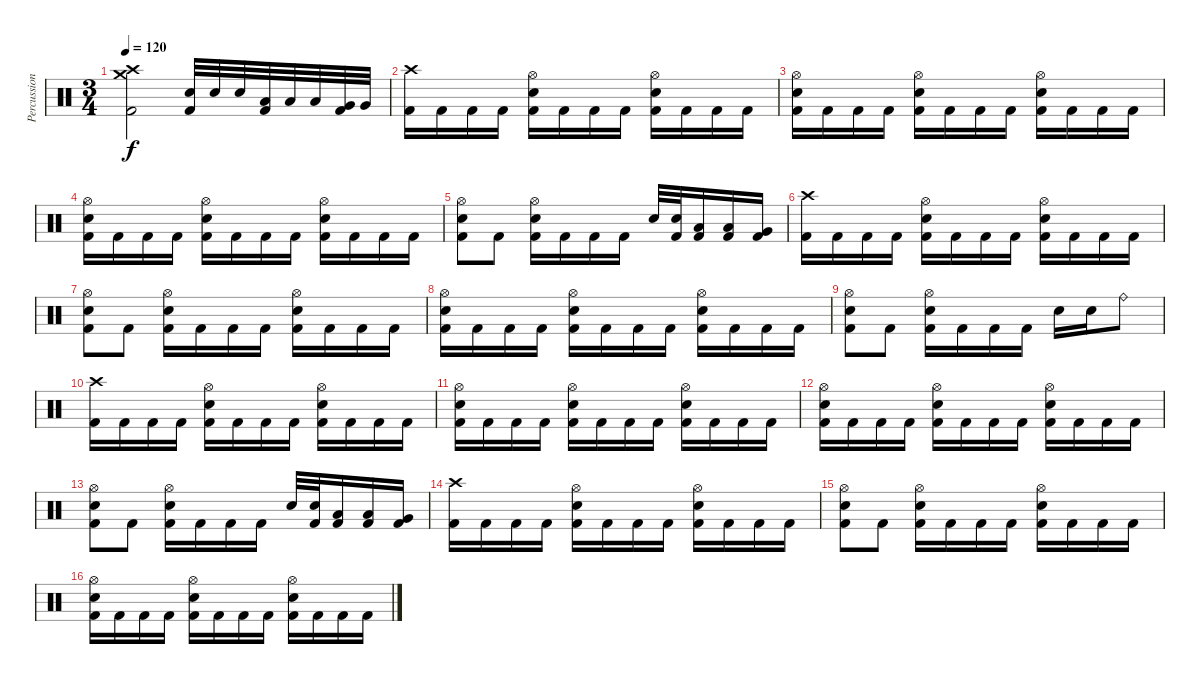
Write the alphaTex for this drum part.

\track ("Percussion" "Percussion") {instrument percussion}
\staff {score}
\articulation defaults
\ts (3 4)
\tempo 120
\clef neutral
\ks c
("Crash high (hit)" "Crash medium (hit)" "Kick (hit) 2").2{dy f} ("Electric Snare (hit)" "Kick (hit) 2").32 "Electric Snare (hit)".32 "Electric Snare (hit)".32 ("Low Tom (hit)" "Kick (hit) 2").32 "Low Tom (hit)".32 "Low Tom (hit)".32 ("Very Low Tom (hit)" "Kick (hit) 2").32 "Very Low Tom (hit)".32 |
("Crash high (hit)" "Kick (hit) 2").16 "Kick (hit) 2".16 "Kick (hit) 2".16 "Kick (hit) 2".16 ("Hi-Hat (open)" "Electric Snare (hit)" "Kick (hit) 2").16 "Kick (hit) 2".16 "Kick (hit) 2".16 "Kick (hit) 2".16 ("Hi-Hat (open)" "Electric Snare (hit)" "Kick (hit) 2").16 "Kick (hit) 2".16 "Kick (hit) 2".16 "Kick (hit) 2".16 |
("Hi-Hat (open)" "Electric Snare (hit)" "Kick (hit) 2").16 "Kick (hit) 2".16 "Kick (hit) 2".16 "Kick (hit) 2".16 ("Hi-Hat (open)" "Electric Snare (hit)" "Kick (hit) 2").16 "Kick (hit) 2".16 "Kick (hit) 2".16 "Kick (hit) 2".16 ("Hi-Hat (open)" "Electric Snare (hit)" "Kick (hit) 2").16 "Kick (hit) 2".16 "Kick (hit) 2".16 "Kick (hit) 2".16 |
("Hi-Hat (open)" "Electric Snare (hit)" "Kick (hit) 2").16 "Kick (hit) 2".16 "Kick (hit) 2".16 "Kick (hit) 2".16 ("Hi-Hat (open)" "Electric Snare (hit)" "Kick (hit) 2").16 "Kick (hit) 2".16 "Kick (hit) 2".16 "Kick (hit) 2".16 ("Hi-Hat (open)" "Electric Snare (hit)" "Kick (hit) 2").16 "Kick (hit) 2".16 "Kick (hit) 2".16 "Kick (hit) 2".16 |
("Hi-Hat (open)" "Electric Snare (hit)" "Kick (hit) 2").8 "Kick (hit) 2".8 ("Hi-Hat (open)" "Electric Snare (hit)" "Kick (hit) 2").16 "Kick (hit) 2".16 "Kick (hit) 2".16 "Kick (hit) 2".16 "Electric Snare (hit)".32 ("Electric Snare (hit)" "Kick (hit) 2").32 ("Low Tom (hit)" "Kick (hit) 2").16 ("Low Tom (hit)" "Kick (hit) 2").16 ("Very Low Tom (hit)" "Kick (hit) 2").16 |
("Crash high (hit)" "Kick (hit) 2").16 "Kick (hit) 2".16 "Kick (hit) 2".16 "Kick (hit) 2".16 ("Hi-Hat (open)" "Electric Snare (hit)" "Kick (hit) 2").16 "Kick (hit) 2".16 "Kick (hit) 2".16 "Kick (hit) 2".16 ("Hi-Hat (open)" "Electric Snare (hit)" "Kick (hit) 2").16 "Kick (hit) 2".16 "Kick (hit) 2".16 "Kick (hit) 2".16 |
("Hi-Hat (open)" "Electric Snare (hit)" "Kick (hit) 2").8 "Kick (hit) 2".8 ("Hi-Hat (open)" "Electric Snare (hit)" "Kick (hit) 2").16 "Kick (hit) 2".16 "Kick (hit) 2".16 "Kick (hit) 2".16 ("Hi-Hat (open)" "Electric Snare (hit)" "Kick (hit) 2").16 "Kick (hit) 2".16 "Kick (hit) 2".16 "Kick (hit) 2".16 |
("Hi-Hat (open)" "Electric Snare (hit)" "Kick (hit) 2").16 "Kick (hit) 2".16 "Kick (hit) 2".16 "Kick (hit) 2".16 ("Hi-Hat (open)" "Electric Snare (hit)" "Kick (hit) 2").16 "Kick (hit) 2".16 "Kick (hit) 2".16 "Kick (hit) 2".16 ("Hi-Hat (open)" "Electric Snare (hit)" "Kick (hit) 2").16 "Kick (hit) 2".16 "Kick (hit) 2".16 "Kick (hit) 2".16 |
("Hi-Hat (open)" "Electric Snare (hit)" "Kick (hit) 2").8 "Kick (hit) 2".8 ("Hi-Hat (open)" "Electric Snare (hit)" "Kick (hit) 2").16 "Kick (hit) 2".16 "Kick (hit) 2".16 "Kick (hit) 2".16 "Electric Snare (hit)".16 "Electric Snare (hit)".16 "Ride (bell)".8 |
("Crash high (hit)" "Kick (hit) 2").16 "Kick (hit) 2".16 "Kick (hit) 2".16 "Kick (hit) 2".16 ("Hi-Hat (open)" "Electric Snare (hit)" "Kick (hit) 2").16 "Kick (hit) 2".16 "Kick (hit) 2".16 "Kick (hit) 2".16 ("Hi-Hat (open)" "Electric Snare (hit)" "Kick (hit) 2").16 "Kick (hit) 2".16 "Kick (hit) 2".16 "Kick (hit) 2".16 |
("Hi-Hat (open)" "Electric Snare (hit)" "Kick (hit) 2").16 "Kick (hit) 2".16 "Kick (hit) 2".16 "Kick (hit) 2".16 ("Hi-Hat (open)" "Electric Snare (hit)" "Kick (hit) 2").16 "Kick (hit) 2".16 "Kick (hit) 2".16 "Kick (hit) 2".16 ("Hi-Hat (open)" "Electric Snare (hit)" "Kick (hit) 2").16 "Kick (hit) 2".16 "Kick (hit) 2".16 "Kick (hit) 2".16 |
("Hi-Hat (open)" "Electric Snare (hit)" "Kick (hit) 2").16 "Kick (hit) 2".16 "Kick (hit) 2".16 "Kick (hit) 2".16 ("Hi-Hat (open)" "Electric Snare (hit)" "Kick (hit) 2").16 "Kick (hit) 2".16 "Kick (hit) 2".16 "Kick (hit) 2".16 ("Hi-Hat (open)" "Electric Snare (hit)" "Kick (hit) 2").16 "Kick (hit) 2".16 "Kick (hit) 2".16 "Kick (hit) 2".16 |
("Hi-Hat (open)" "Electric Snare (hit)" "Kick (hit) 2").8 "Kick (hit) 2".8 ("Hi-Hat (open)" "Electric Snare (hit)" "Kick (hit) 2").16 "Kick (hit) 2".16 "Kick (hit) 2".16 "Kick (hit) 2".16 "Electric Snare (hit)".32 ("Electric Snare (hit)" "Kick (hit) 2").32 ("Low Tom (hit)" "Kick (hit) 2").16 ("Low Tom (hit)" "Kick (hit) 2").16 ("Very Low Tom (hit)" "Kick (hit) 2").16 |
("Crash high (hit)" "Kick (hit) 2").16 "Kick (hit) 2".16 "Kick (hit) 2".16 "Kick (hit) 2".16 ("Hi-Hat (open)" "Electric Snare (hit)" "Kick (hit) 2").16 "Kick (hit) 2".16 "Kick (hit) 2".16 "Kick (hit) 2".16 ("Hi-Hat (open)" "Electric Snare (hit)" "Kick (hit) 2").16 "Kick (hit) 2".16 "Kick (hit) 2".16 "Kick (hit) 2".16 |
("Hi-Hat (open)" "Electric Snare (hit)" "Kick (hit) 2").8 "Kick (hit) 2".8 ("Hi-Hat (open)" "Electric Snare (hit)" "Kick (hit) 2").16 "Kick (hit) 2".16 "Kick (hit) 2".16 "Kick (hit) 2".16 ("Hi-Hat (open)" "Electric Snare (hit)" "Kick (hit) 2").16 "Kick (hit) 2".16 "Kick (hit) 2".16 "Kick (hit) 2".16 |
("Hi-Hat (open)" "Electric Snare (hit)" "Kick (hit) 2").16 "Kick (hit) 2".16 "Kick (hit) 2".16 "Kick (hit) 2".16 ("Hi-Hat (open)" "Electric Snare (hit)" "Kick (hit) 2").16 "Kick (hit) 2".16 "Kick (hit) 2".16 "Kick (hit) 2".16 ("Hi-Hat (open)" "Electric Snare (hit)" "Kick (hit) 2").16 "Kick (hit) 2".16 "Kick (hit) 2".16 "Kick (hit) 2".16
